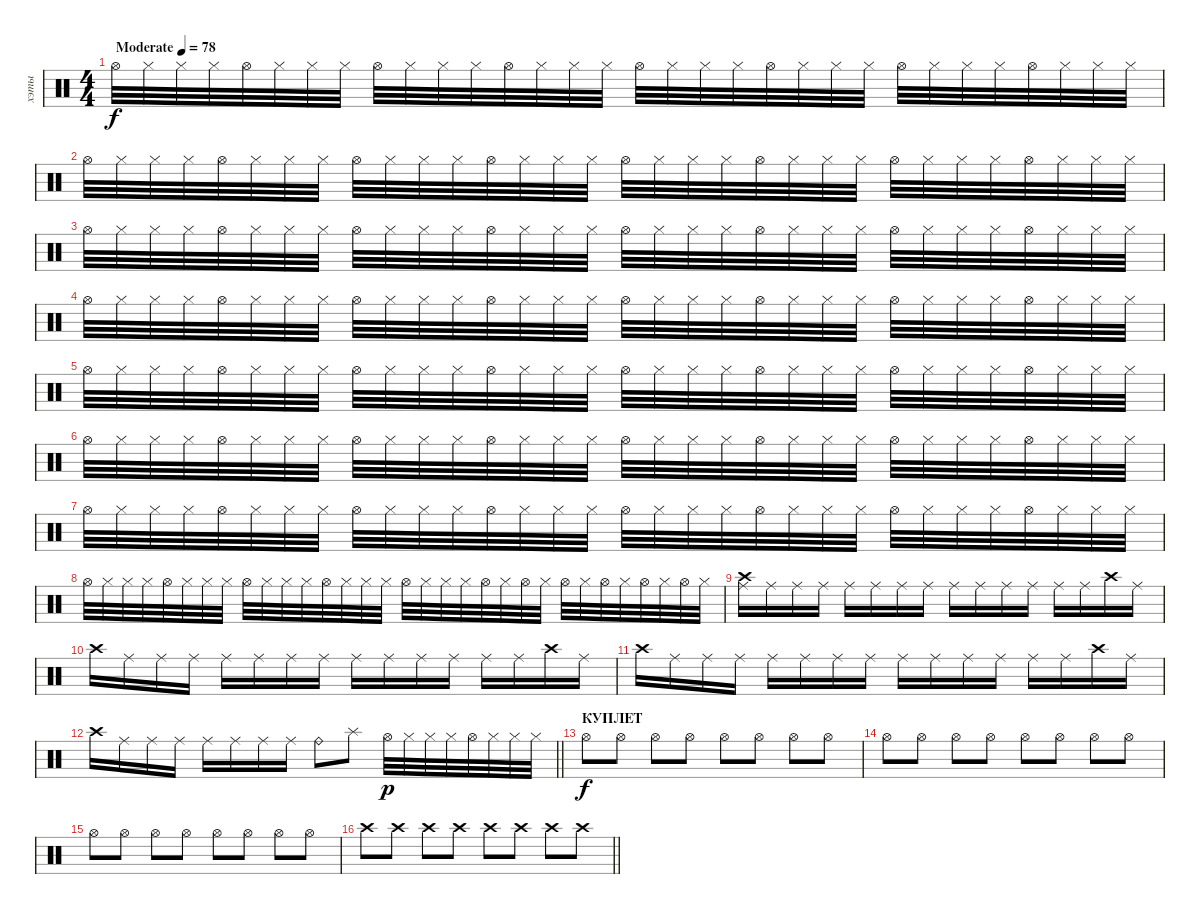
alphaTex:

\track ("хэты" "хэты") {instrument percussion}
\staff {score}
\articulation defaults
\ts (4 4)
\tempo (78 "Moderate")
\clef neutral
\ks c "Hi-Hat (open)".32{dy f} "Hi-Hat (closed)".32 "Hi-Hat (closed)".32 "Hi-Hat (closed)".32 "Hi-Hat (open)".32 "Hi-Hat (closed)".32 "Hi-Hat (closed)".32 "Hi-Hat (closed)".32 "Hi-Hat (open)".32 "Hi-Hat (closed)".32 "Hi-Hat (closed)".32 "Hi-Hat (closed)".32 "Hi-Hat (open)".32 "Hi-Hat (closed)".32 "Hi-Hat (closed)".32 "Hi-Hat (closed)".32 "Hi-Hat (open)".32 "Hi-Hat (closed)".32 "Hi-Hat (closed)".32 "Hi-Hat (closed)".32 "Hi-Hat (open)".32 "Hi-Hat (closed)".32 "Hi-Hat (closed)".32 "Hi-Hat (closed)".32 "Hi-Hat (open)".32 "Hi-Hat (closed)".32 "Hi-Hat (closed)".32 "Hi-Hat (closed)".32 "Hi-Hat (open)".32 "Hi-Hat (closed)".32 "Hi-Hat (closed)".32 "Hi-Hat (closed)".32
|
"Hi-Hat (open)".32 "Hi-Hat (closed)".32 "Hi-Hat (closed)".32 "Hi-Hat (closed)".32 "Hi-Hat (open)".32 "Hi-Hat (closed)".32 "Hi-Hat (closed)".32 "Hi-Hat (closed)".32 "Hi-Hat (open)".32 "Hi-Hat (closed)".32 "Hi-Hat (closed)".32 "Hi-Hat (closed)".32 "Hi-Hat (open)".32 "Hi-Hat (closed)".32 "Hi-Hat (closed)".32 "Hi-Hat (closed)".32 "Hi-Hat (open)".32 "Hi-Hat (closed)".32 "Hi-Hat (closed)".32 "Hi-Hat (closed)".32 "Hi-Hat (open)".32 "Hi-Hat (closed)".32 "Hi-Hat (closed)".32 "Hi-Hat (closed)".32 "Hi-Hat (open)".32 "Hi-Hat (closed)".32 "Hi-Hat (closed)".32 "Hi-Hat (closed)".32 "Hi-Hat (open)".32 "Hi-Hat (closed)".32 "Hi-Hat (closed)".32 "Hi-Hat (closed)".32 |
"Hi-Hat (open)".32 "Hi-Hat (closed)".32 "Hi-Hat (closed)".32 "Hi-Hat (closed)".32 "Hi-Hat (open)".32 "Hi-Hat (closed)".32 "Hi-Hat (closed)".32 "Hi-Hat (closed)".32 "Hi-Hat (open)".32 "Hi-Hat (closed)".32 "Hi-Hat (closed)".32 "Hi-Hat (closed)".32 "Hi-Hat (open)".32 "Hi-Hat (closed)".32 "Hi-Hat (closed)".32 "Hi-Hat (closed)".32 "Hi-Hat (open)".32 "Hi-Hat (closed)".32 "Hi-Hat (closed)".32 "Hi-Hat (closed)".32 "Hi-Hat (open)".32 "Hi-Hat (closed)".32 "Hi-Hat (closed)".32 "Hi-Hat (closed)".32 "Hi-Hat (open)".32 "Hi-Hat (closed)".32 "Hi-Hat (closed)".32 "Hi-Hat (closed)".32 "Hi-Hat (open)".32 "Hi-Hat (closed)".32 "Hi-Hat (closed)".32 "Hi-Hat (closed)".32 |
"Hi-Hat (open)".32 "Hi-Hat (closed)".32 "Hi-Hat (closed)".32 "Hi-Hat (closed)".32 "Hi-Hat (open)".32 "Hi-Hat (closed)".32 "Hi-Hat (closed)".32 "Hi-Hat (closed)".32 "Hi-Hat (open)".32 "Hi-Hat (closed)".32 "Hi-Hat (closed)".32 "Hi-Hat (closed)".32 "Hi-Hat (open)".32 "Hi-Hat (closed)".32 "Hi-Hat (closed)".32 "Hi-Hat (closed)".32 "Hi-Hat (open)".32 "Hi-Hat (closed)".32 "Hi-Hat (closed)".32 "Hi-Hat (closed)".32 "Hi-Hat (open)".32 "Hi-Hat (closed)".32 "Hi-Hat (closed)".32 "Hi-Hat (closed)".32 "Hi-Hat (open)".32 "Hi-Hat (closed)".32 "Hi-Hat (closed)".32 "Hi-Hat (closed)".32 "Hi-Hat (open)".32 "Hi-Hat (closed)".32 "Hi-Hat (closed)".32 "Hi-Hat (closed)".32 |
"Hi-Hat (open)".32 "Hi-Hat (closed)".32 "Hi-Hat (closed)".32 "Hi-Hat (closed)".32 "Hi-Hat (open)".32 "Hi-Hat (closed)".32 "Hi-Hat (closed)".32 "Hi-Hat (closed)".32 "Hi-Hat (open)".32 "Hi-Hat (closed)".32 "Hi-Hat (closed)".32 "Hi-Hat (closed)".32 "Hi-Hat (open)".32 "Hi-Hat (closed)".32 "Hi-Hat (closed)".32 "Hi-Hat (closed)".32 "Hi-Hat (open)".32 "Hi-Hat (closed)".32 "Hi-Hat (closed)".32 "Hi-Hat (closed)".32 "Hi-Hat (open)".32 "Hi-Hat (closed)".32 "Hi-Hat (closed)".32 "Hi-Hat (closed)".32 "Hi-Hat (open)".32 "Hi-Hat (closed)".32 "Hi-Hat (closed)".32 "Hi-Hat (closed)".32 "Hi-Hat (open)".32 "Hi-Hat (closed)".32 "Hi-Hat (closed)".32 "Hi-Hat (closed)".32 |
"Hi-Hat (open)".32 "Hi-Hat (closed)".32 "Hi-Hat (closed)".32 "Hi-Hat (closed)".32 "Hi-Hat (open)".32 "Hi-Hat (closed)".32 "Hi-Hat (closed)".32 "Hi-Hat (closed)".32 "Hi-Hat (open)".32 "Hi-Hat (closed)".32 "Hi-Hat (closed)".32 "Hi-Hat (closed)".32 "Hi-Hat (open)".32 "Hi-Hat (closed)".32 "Hi-Hat (closed)".32 "Hi-Hat (closed)".32 "Hi-Hat (open)".32 "Hi-Hat (closed)".32 "Hi-Hat (closed)".32 "Hi-Hat (closed)".32 "Hi-Hat (open)".32 "Hi-Hat (closed)".32 "Hi-Hat (closed)".32 "Hi-Hat (closed)".32 "Hi-Hat (open)".32 "Hi-Hat (closed)".32 "Hi-Hat (closed)".32 "Hi-Hat (closed)".32 "Hi-Hat (open)".32 "Hi-Hat (closed)".32 "Hi-Hat (closed)".32 "Hi-Hat (closed)".32 |
"Hi-Hat (open)".32 "Hi-Hat (closed)".32 "Hi-Hat (closed)".32 "Hi-Hat (closed)".32 "Hi-Hat (open)".32 "Hi-Hat (closed)".32 "Hi-Hat (closed)".32 "Hi-Hat (closed)".32 "Hi-Hat (open)".32 "Hi-Hat (closed)".32 "Hi-Hat (closed)".32 "Hi-Hat (closed)".32 "Hi-Hat (open)".32 "Hi-Hat (closed)".32 "Hi-Hat (closed)".32 "Hi-Hat (closed)".32 "Hi-Hat (open)".32 "Hi-Hat (closed)".32 "Hi-Hat (closed)".32 "Hi-Hat (closed)".32 "Hi-Hat (open)".32 "Hi-Hat (closed)".32 "Hi-Hat (closed)".32 "Hi-Hat (closed)".32 "Hi-Hat (open)".32 "Hi-Hat (closed)".32 "Hi-Hat (closed)".32 "Hi-Hat (closed)".32 "Hi-Hat (open)".32 "Hi-Hat (closed)".32 "Hi-Hat (closed)".32 "Hi-Hat (closed)".32 |
"Hi-Hat (open)".32 "Hi-Hat (closed)".32 "Hi-Hat (closed)".32 "Hi-Hat (closed)".32 "Hi-Hat (open)".32 "Hi-Hat (closed)".32 "Hi-Hat (closed)".32 "Hi-Hat (closed)".32 "Hi-Hat (open)".32 "Hi-Hat (closed)".32 "Hi-Hat (closed)".32 "Hi-Hat (closed)".32 "Hi-Hat (open)".32 "Hi-Hat (closed)".32 "Hi-Hat (closed)".32 "Hi-Hat (closed)".32 "Hi-Hat (open)".32 "Hi-Hat (closed)".32 "Hi-Hat (closed)".32 "Hi-Hat (closed)".32 "Hi-Hat (open)".32 "Hi-Hat (closed)".32 "Hi-Hat (open)".32 "Hi-Hat (closed)".32 "Hi-Hat (open)".32 "Hi-Hat (closed)".32 "Hi-Hat (open)".32 "Hi-Hat (closed)".32 "Hi-Hat (open)".32 "Hi-Hat (closed)".32 "Hi-Hat (open)".32 "Hi-Hat (closed)".32 |
("Crash high (hit)" "Ride (middle)").16 "Ride (middle)".16 "Ride (middle)".16 "Ride (middle)".16 "Ride (middle)".16 "Ride (middle)".16 "Ride (middle)".16 "Ride (middle)".16 "Ride (middle)".16 "Ride (middle)".16 "Ride (middle)".16 "Ride (middle)".16 "Ride (middle)".16 "Ride (middle)".16 "Crash high (hit)".16 "Ride (middle)".16 |
"Crash high (hit)".16 "Ride (middle)".16 "Ride (middle)".16 "Ride (middle)".16 "Ride (middle)".16 "Ride (middle)".16 "Ride (middle)".16 "Ride (middle)".16 "Ride (middle)".16 "Ride (middle)".16 "Ride (middle)".16 "Ride (middle)".16 "Ride (middle)".16 "Ride (middle)".16 "Crash high (hit)".16 "Ride (middle)".16 |
"Crash high (hit)".16 "Ride (middle)".16 "Ride (middle)".16 "Ride (middle)".16 "Ride (middle)".16 "Ride (middle)".16 "Ride (middle)".16 "Ride (middle)".16 "Ride (middle)".16 "Ride (middle)".16 "Ride (middle)".16 "Ride (middle)".16 "Ride (middle)".16 "Ride (middle)".16 "Crash high (hit)".16 "Ride (middle)".16 |
\barLineRight lightlight "Crash high (hit)".16 "Ride (middle)".16 "Ride (middle)".16 "Ride (middle)".16 "Ride (middle)".16 "Ride (middle)".16 "Ride (middle)".16 "Ride (middle)".16 "Ride (bell)".8 "Splash (hit)".8 "Hi-Hat (open)".32{dy p} "Hi-Hat (closed)".32 "Hi-Hat (closed)".32 "Hi-Hat (closed)".32 "Hi-Hat (open)".32 "Hi-Hat (closed)".32 "Hi-Hat (closed)".32 "Hi-Hat (closed)".32
|
\section ("" "КУПЛЕТ")
"Hi-Hat (open)".8{dy f} "Hi-Hat (open)".8 "Hi-Hat (open)".8 "Hi-Hat (open)".8 "Hi-Hat (open)".8 "Hi-Hat (open)".8 "Hi-Hat (open)".8 "Hi-Hat (open)".8 |
"Hi-Hat (open)".8 "Hi-Hat (open)".8 "Hi-Hat (open)".8 "Hi-Hat (open)".8 "Hi-Hat (open)".8 "Hi-Hat (open)".8 "Hi-Hat (open)".8 "Hi-Hat (open)".8 |
"Hi-Hat (open)".8 "Hi-Hat (open)".8 "Hi-Hat (open)".8 "Hi-Hat (open)".8 "Hi-Hat (open)".8 "Hi-Hat (open)".8 "Hi-Hat (open)".8 "Hi-Hat (open)".8 |
\barLineRight lightlight "Crash high (hit)".8 "Crash high (hit)".8 "Crash high (hit)".8 "Crash high (hit)".8 "Crash high (hit)".8 "Crash high (hit)".8 "Crash high (hit)".8 "Crash high (hit)".8
